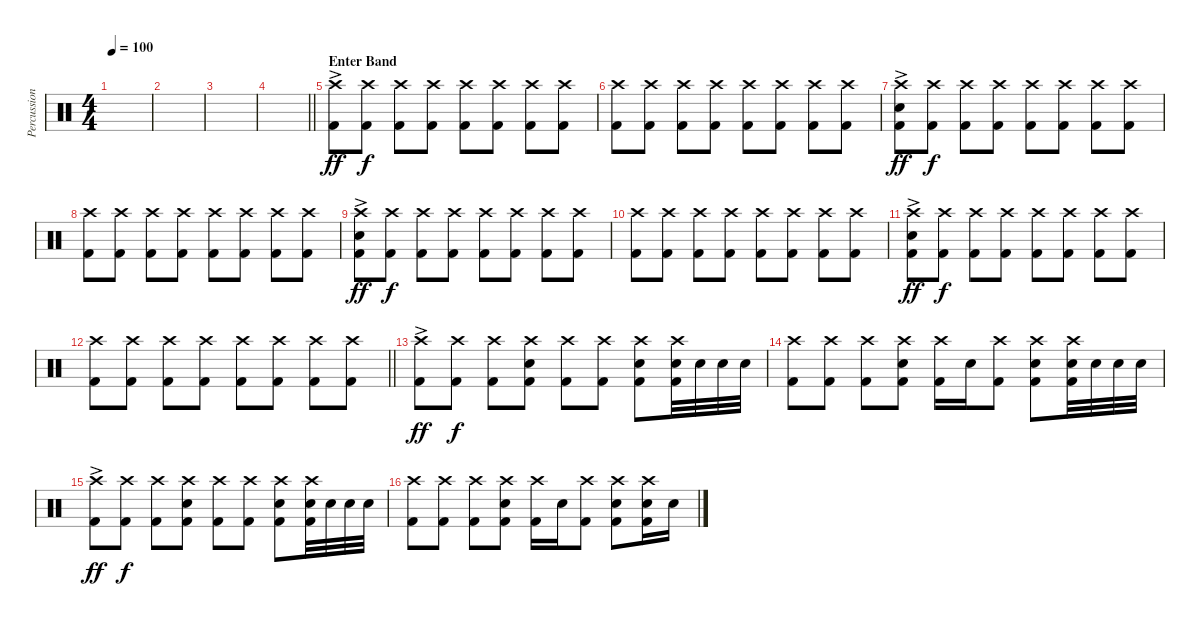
\track ("Percussion" "Percussion") {instrument percussion}
\staff {score}
\articulation defaults
\ts (4 4)
\tempo 100
\clef neutral
\ks c
|
|
|
\barLineRight lightlight
|
\section ("" "Enter Band")
("Crash high (hit)"{ac} "Kick (hit) 2").8{dy ff} ("Crash high (hit)" "Kick (hit) 2").8{dy f} ("Crash high (hit)" "Kick (hit) 2").8 ("Crash high (hit)" "Kick (hit) 2").8 ("Crash high (hit)" "Kick (hit) 2").8 ("Crash high (hit)" "Kick (hit) 2").8 ("Crash high (hit)" "Kick (hit) 2").8 ("Crash high (hit)" "Kick (hit) 2").8 |
("Crash high (hit)" "Kick (hit) 2").8 ("Crash high (hit)" "Kick (hit) 2").8 ("Crash high (hit)" "Kick (hit) 2").8 ("Crash high (hit)" "Kick (hit) 2").8 ("Crash high (hit)" "Kick (hit) 2").8 ("Crash high (hit)" "Kick (hit) 2").8 ("Crash high (hit)" "Kick (hit) 2").8 ("Crash high (hit)" "Kick (hit) 2").8 |
("Electric Snare (hit)" "Crash high (hit)"{ac} "Kick (hit) 2").8{dy ff} ("Crash high (hit)" "Kick (hit) 2").8{dy f} ("Crash high (hit)" "Kick (hit) 2").8 ("Crash high (hit)" "Kick (hit) 2").8 ("Crash high (hit)" "Kick (hit) 2").8 ("Crash high (hit)" "Kick (hit) 2").8 ("Crash high (hit)" "Kick (hit) 2").8 ("Crash high (hit)" "Kick (hit) 2").8 |
("Crash high (hit)" "Kick (hit) 2").8 ("Crash high (hit)" "Kick (hit) 2").8 ("Crash high (hit)" "Kick (hit) 2").8 ("Crash high (hit)" "Kick (hit) 2").8 ("Crash high (hit)" "Kick (hit) 2").8 ("Crash high (hit)" "Kick (hit) 2").8 ("Crash high (hit)" "Kick (hit) 2").8 ("Crash high (hit)" "Kick (hit) 2").8 |
("Electric Snare (hit)" "Crash high (hit)"{ac} "Kick (hit) 2").8{dy ff} ("Crash high (hit)" "Kick (hit) 2").8{dy f} ("Crash high (hit)" "Kick (hit) 2").8 ("Crash high (hit)" "Kick (hit) 2").8 ("Crash high (hit)" "Kick (hit) 2").8 ("Crash high (hit)" "Kick (hit) 2").8 ("Crash high (hit)" "Kick (hit) 2").8 ("Crash high (hit)" "Kick (hit) 2").8 |
("Crash high (hit)" "Kick (hit) 2").8 ("Crash high (hit)" "Kick (hit) 2").8 ("Crash high (hit)" "Kick (hit) 2").8 ("Crash high (hit)" "Kick (hit) 2").8 ("Crash high (hit)" "Kick (hit) 2").8 ("Crash high (hit)" "Kick (hit) 2").8 ("Crash high (hit)" "Kick (hit) 2").8 ("Crash high (hit)" "Kick (hit) 2").8 |
("Electric Snare (hit)" "Crash high (hit)"{ac} "Kick (hit) 2").8{dy ff} ("Crash high (hit)" "Kick (hit) 2").8{dy f} ("Crash high (hit)" "Kick (hit) 2").8 ("Crash high (hit)" "Kick (hit) 2").8 ("Crash high (hit)" "Kick (hit) 2").8 ("Crash high (hit)" "Kick (hit) 2").8 ("Crash high (hit)" "Kick (hit) 2").8 ("Crash high (hit)" "Kick (hit) 2").8 |
\barLineRight lightlight
("Crash high (hit)" "Kick (hit) 2").8 ("Crash high (hit)" "Kick (hit) 2").8 ("Crash high (hit)" "Kick (hit) 2").8 ("Crash high (hit)" "Kick (hit) 2").8 ("Crash high (hit)" "Kick (hit) 2").8 ("Crash high (hit)" "Kick (hit) 2").8 ("Crash high (hit)" "Kick (hit) 2").8 ("Crash high (hit)" "Kick (hit) 2").8 |
("Crash high (hit)"{ac} "Kick (hit) 2").8{dy ff} ("Crash high (hit)" "Kick (hit) 2").8{dy f} ("Crash high (hit)" "Kick (hit) 2").8 ("Electric Snare (hit)" "Crash high (hit)" "Kick (hit) 2").8 ("Crash high (hit)" "Kick (hit) 2").8 ("Crash high (hit)" "Kick (hit) 2").8 ("Electric Snare (hit)" "Crash high (hit)" "Kick (hit) 2").8 ("Electric Snare (hit)" "Crash high (hit)" "Kick (hit) 2").32 "Electric Snare (hit)".32 "Electric Snare (hit)".32 "Electric Snare (hit)".32 |
("Crash high (hit)" "Kick (hit) 2").8 ("Crash high (hit)" "Kick (hit) 2").8 ("Crash high (hit)" "Kick (hit) 2").8 ("Electric Snare (hit)" "Crash high (hit)" "Kick (hit) 2").8 ("Crash high (hit)" "Kick (hit) 2").16 "Electric Snare (hit)".16 ("Crash high (hit)" "Kick (hit) 2").8 ("Electric Snare (hit)" "Crash high (hit)" "Kick (hit) 2").8 ("Electric Snare (hit)" "Crash high (hit)" "Kick (hit) 2").32 "Electric Snare (hit)".32 "Electric Snare (hit)".32 "Electric Snare (hit)".32 |
("Crash high (hit)"{ac} "Kick (hit) 2").8{dy ff} ("Crash high (hit)" "Kick (hit) 2").8{dy f} ("Crash high (hit)" "Kick (hit) 2").8 ("Electric Snare (hit)" "Crash high (hit)" "Kick (hit) 2").8 ("Crash high (hit)" "Kick (hit) 2").8 ("Crash high (hit)" "Kick (hit) 2").8 ("Electric Snare (hit)" "Crash high (hit)" "Kick (hit) 2").8 ("Electric Snare (hit)" "Crash high (hit)" "Kick (hit) 2").32 "Electric Snare (hit)".32 "Electric Snare (hit)".32 "Electric Snare (hit)".32 |
("Crash high (hit)" "Kick (hit) 2").8 ("Crash high (hit)" "Kick (hit) 2").8 ("Crash high (hit)" "Kick (hit) 2").8 ("Electric Snare (hit)" "Crash high (hit)" "Kick (hit) 2").8 ("Crash high (hit)" "Kick (hit) 2").16 "Electric Snare (hit)".16 ("Crash high (hit)" "Kick (hit) 2").8 ("Electric Snare (hit)" "Crash high (hit)" "Kick (hit) 2").8 ("Electric Snare (hit)" "Crash high (hit)" "Kick (hit) 2").16 "Electric Snare (hit)".16
